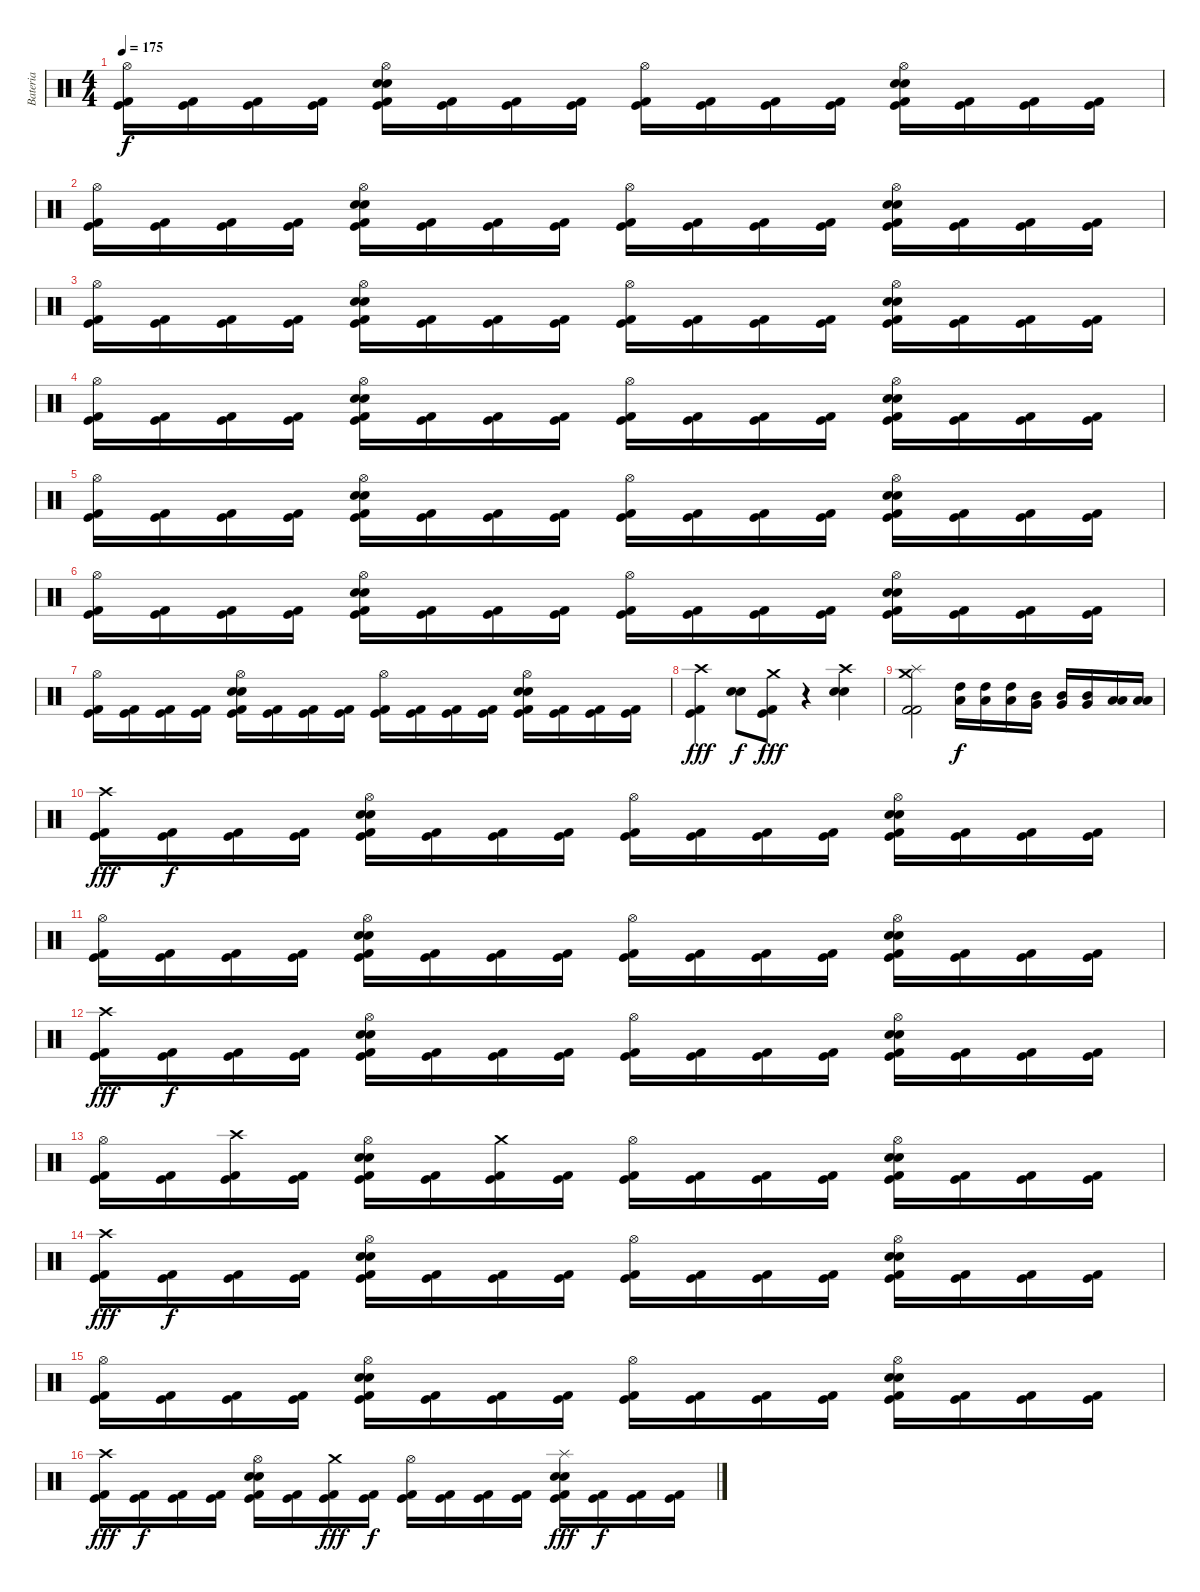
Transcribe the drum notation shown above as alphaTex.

\track ("Bateria" "Bateria") {instrument percussion}
\staff {score}
\articulation defaults
\ts (4 4)
\tempo 175
\clef neutral
\ks c
("Hi-Hat (open)" "Kick (hit) 2" "Kick (hit)").16{dy f} ("Kick (hit) 2" "Kick (hit)").16 ("Kick (hit) 2" "Kick (hit)").16 ("Kick (hit) 2" "Kick (hit)").16 ("Hi-Hat (open)" "Electric Snare (hit)" "Snare (hit) 2" "Kick (hit) 2" "Kick (hit)").16 ("Kick (hit) 2" "Kick (hit)").16 ("Kick (hit) 2" "Kick (hit)").16 ("Kick (hit) 2" "Kick (hit)").16 ("Hi-Hat (open)" "Kick (hit) 2" "Kick (hit)").16 ("Kick (hit) 2" "Kick (hit)").16 ("Kick (hit) 2" "Kick (hit)").16 ("Kick (hit) 2" "Kick (hit)").16 ("Hi-Hat (open)" "Electric Snare (hit)" "Snare (hit) 2" "Kick (hit) 2" "Kick (hit)").16 ("Kick (hit) 2" "Kick (hit)").16 ("Kick (hit) 2" "Kick (hit)").16 ("Kick (hit) 2" "Kick (hit)").16 |
("Hi-Hat (open)" "Kick (hit) 2" "Kick (hit)").16 ("Kick (hit) 2" "Kick (hit)").16 ("Kick (hit) 2" "Kick (hit)").16 ("Kick (hit) 2" "Kick (hit)").16 ("Hi-Hat (open)" "Electric Snare (hit)" "Snare (hit) 2" "Kick (hit) 2" "Kick (hit)").16 ("Kick (hit) 2" "Kick (hit)").16 ("Kick (hit) 2" "Kick (hit)").16 ("Kick (hit) 2" "Kick (hit)").16 ("Hi-Hat (open)" "Kick (hit) 2" "Kick (hit)").16 ("Kick (hit) 2" "Kick (hit)").16 ("Kick (hit) 2" "Kick (hit)").16 ("Kick (hit) 2" "Kick (hit)").16 ("Hi-Hat (open)" "Electric Snare (hit)" "Snare (hit) 2" "Kick (hit) 2" "Kick (hit)").16 ("Kick (hit) 2" "Kick (hit)").16 ("Kick (hit) 2" "Kick (hit)").16 ("Kick (hit) 2" "Kick (hit)").16 |
("Hi-Hat (open)" "Kick (hit) 2" "Kick (hit)").16 ("Kick (hit) 2" "Kick (hit)").16 ("Kick (hit) 2" "Kick (hit)").16 ("Kick (hit) 2" "Kick (hit)").16 ("Hi-Hat (open)" "Electric Snare (hit)" "Snare (hit) 2" "Kick (hit) 2" "Kick (hit)").16 ("Kick (hit) 2" "Kick (hit)").16 ("Kick (hit) 2" "Kick (hit)").16 ("Kick (hit) 2" "Kick (hit)").16 ("Hi-Hat (open)" "Kick (hit) 2" "Kick (hit)").16 ("Kick (hit) 2" "Kick (hit)").16 ("Kick (hit) 2" "Kick (hit)").16 ("Kick (hit) 2" "Kick (hit)").16 ("Hi-Hat (open)" "Electric Snare (hit)" "Snare (hit) 2" "Kick (hit) 2" "Kick (hit)").16 ("Kick (hit) 2" "Kick (hit)").16 ("Kick (hit) 2" "Kick (hit)").16 ("Kick (hit) 2" "Kick (hit)").16 |
("Hi-Hat (open)" "Kick (hit) 2" "Kick (hit)").16 ("Kick (hit) 2" "Kick (hit)").16 ("Kick (hit) 2" "Kick (hit)").16 ("Kick (hit) 2" "Kick (hit)").16 ("Hi-Hat (open)" "Electric Snare (hit)" "Snare (hit) 2" "Kick (hit) 2" "Kick (hit)").16 ("Kick (hit) 2" "Kick (hit)").16 ("Kick (hit) 2" "Kick (hit)").16 ("Kick (hit) 2" "Kick (hit)").16 ("Hi-Hat (open)" "Kick (hit) 2" "Kick (hit)").16 ("Kick (hit) 2" "Kick (hit)").16 ("Kick (hit) 2" "Kick (hit)").16 ("Kick (hit) 2" "Kick (hit)").16 ("Hi-Hat (open)" "Electric Snare (hit)" "Snare (hit) 2" "Kick (hit) 2" "Kick (hit)").16 ("Kick (hit) 2" "Kick (hit)").16 ("Kick (hit) 2" "Kick (hit)").16 ("Kick (hit) 2" "Kick (hit)").16 |
("Hi-Hat (open)" "Kick (hit) 2" "Kick (hit)").16 ("Kick (hit) 2" "Kick (hit)").16 ("Kick (hit) 2" "Kick (hit)").16 ("Kick (hit) 2" "Kick (hit)").16 ("Hi-Hat (open)" "Electric Snare (hit)" "Snare (hit) 2" "Kick (hit) 2" "Kick (hit)").16 ("Kick (hit) 2" "Kick (hit)").16 ("Kick (hit) 2" "Kick (hit)").16 ("Kick (hit) 2" "Kick (hit)").16 ("Hi-Hat (open)" "Kick (hit) 2" "Kick (hit)").16 ("Kick (hit) 2" "Kick (hit)").16 ("Kick (hit) 2" "Kick (hit)").16 ("Kick (hit) 2" "Kick (hit)").16 ("Hi-Hat (open)" "Electric Snare (hit)" "Snare (hit) 2" "Kick (hit) 2" "Kick (hit)").16 ("Kick (hit) 2" "Kick (hit)").16 ("Kick (hit) 2" "Kick (hit)").16 ("Kick (hit) 2" "Kick (hit)").16 |
("Hi-Hat (open)" "Kick (hit) 2" "Kick (hit)").16 ("Kick (hit) 2" "Kick (hit)").16 ("Kick (hit) 2" "Kick (hit)").16 ("Kick (hit) 2" "Kick (hit)").16 ("Hi-Hat (open)" "Electric Snare (hit)" "Snare (hit) 2" "Kick (hit) 2" "Kick (hit)").16 ("Kick (hit) 2" "Kick (hit)").16 ("Kick (hit) 2" "Kick (hit)").16 ("Kick (hit) 2" "Kick (hit)").16 ("Hi-Hat (open)" "Kick (hit) 2" "Kick (hit)").16 ("Kick (hit) 2" "Kick (hit)").16 ("Kick (hit) 2" "Kick (hit)").16 ("Kick (hit) 2" "Kick (hit)").16 ("Hi-Hat (open)" "Electric Snare (hit)" "Snare (hit) 2" "Kick (hit) 2" "Kick (hit)").16 ("Kick (hit) 2" "Kick (hit)").16 ("Kick (hit) 2" "Kick (hit)").16 ("Kick (hit) 2" "Kick (hit)").16 |
("Hi-Hat (open)" "Kick (hit) 2" "Kick (hit)").16 ("Kick (hit) 2" "Kick (hit)").16 ("Kick (hit) 2" "Kick (hit)").16 ("Kick (hit) 2" "Kick (hit)").16 ("Hi-Hat (open)" "Electric Snare (hit)" "Snare (hit) 2" "Kick (hit) 2" "Kick (hit)").16 ("Kick (hit) 2" "Kick (hit)").16 ("Kick (hit) 2" "Kick (hit)").16 ("Kick (hit) 2" "Kick (hit)").16 ("Hi-Hat (open)" "Kick (hit) 2" "Kick (hit)").16 ("Kick (hit) 2" "Kick (hit)").16 ("Kick (hit) 2" "Kick (hit)").16 ("Kick (hit) 2" "Kick (hit)").16 ("Hi-Hat (open)" "Electric Snare (hit)" "Snare (hit) 2" "Kick (hit) 2" "Kick (hit)").16 ("Kick (hit) 2" "Kick (hit)").16 ("Kick (hit) 2" "Kick (hit)").16 ("Kick (hit) 2" "Kick (hit)").16 |
("Crash high (hit)" "Kick (hit) 2" "Kick (hit)").4{dy fff} ("Electric Snare (hit)" "Snare (hit) 2").8{dy f} ("Crash medium (hit)" "Kick (hit) 2" "Kick (hit)").8{dy fff} r.4 ("Crash high (hit)" "Electric Snare (hit)" "Snare (hit) 2").4 |
("Crash medium (hit)" "Splash (hit)" "Kick (hit) 2" "Kick (hit) 2").2 ("High Tom (hit)" "Low Tom (hit)").16{dy f} ("High Tom (hit)" "Low Tom (hit)").16 ("High Tom (hit)" "Low Tom (hit)").16 ("Mid Tom (hit)" "Very Low Tom (hit)").16 ("Mid Tom (hit)" "Very Low Tom (hit)").16 ("Mid Tom (hit)" "Very Low Tom (hit)").16 ("Low Tom (hit)" "Low Floor Tom (hit)").16 ("Low Tom (hit)" "Low Floor Tom (hit)").16 |
("Crash high (hit)" "Kick (hit) 2" "Kick (hit)").16{dy fff} ("Kick (hit) 2" "Kick (hit)").16{dy f} ("Kick (hit) 2" "Kick (hit)").16 ("Kick (hit) 2" "Kick (hit)").16 ("Hi-Hat (open)" "Electric Snare (hit)" "Snare (hit) 2" "Kick (hit) 2" "Kick (hit)").16 ("Kick (hit) 2" "Kick (hit)").16 ("Kick (hit) 2" "Kick (hit)").16 ("Kick (hit) 2" "Kick (hit)").16 ("Hi-Hat (open)" "Kick (hit) 2" "Kick (hit)").16 ("Kick (hit) 2" "Kick (hit)").16 ("Kick (hit) 2" "Kick (hit)").16 ("Kick (hit) 2" "Kick (hit)").16 ("Hi-Hat (open)" "Electric Snare (hit)" "Snare (hit) 2" "Kick (hit) 2" "Kick (hit)").16 ("Kick (hit) 2" "Kick (hit)").16 ("Kick (hit) 2" "Kick (hit)").16 ("Kick (hit) 2" "Kick (hit)").16 |
("Hi-Hat (open)" "Kick (hit) 2" "Kick (hit)").16 ("Kick (hit) 2" "Kick (hit)").16 ("Kick (hit) 2" "Kick (hit)").16 ("Kick (hit) 2" "Kick (hit)").16 ("Hi-Hat (open)" "Electric Snare (hit)" "Snare (hit) 2" "Kick (hit) 2" "Kick (hit)").16 ("Kick (hit) 2" "Kick (hit)").16 ("Kick (hit) 2" "Kick (hit)").16 ("Kick (hit) 2" "Kick (hit)").16 ("Hi-Hat (open)" "Kick (hit) 2" "Kick (hit)").16 ("Kick (hit) 2" "Kick (hit)").16 ("Kick (hit) 2" "Kick (hit)").16 ("Kick (hit) 2" "Kick (hit)").16 ("Hi-Hat (open)" "Electric Snare (hit)" "Snare (hit) 2" "Kick (hit) 2" "Kick (hit)").16 ("Kick (hit) 2" "Kick (hit)").16 ("Kick (hit) 2" "Kick (hit)").16 ("Kick (hit) 2" "Kick (hit)").16 |
("Crash high (hit)" "Kick (hit) 2" "Kick (hit)").16{dy fff} ("Kick (hit) 2" "Kick (hit)").16{dy f} ("Kick (hit) 2" "Kick (hit)").16 ("Kick (hit) 2" "Kick (hit)").16 ("Hi-Hat (open)" "Electric Snare (hit)" "Snare (hit) 2" "Kick (hit) 2" "Kick (hit)").16 ("Kick (hit) 2" "Kick (hit)").16 ("Kick (hit) 2" "Kick (hit)").16 ("Kick (hit) 2" "Kick (hit)").16 ("Hi-Hat (open)" "Kick (hit) 2" "Kick (hit)").16 ("Kick (hit) 2" "Kick (hit)").16 ("Kick (hit) 2" "Kick (hit)").16 ("Kick (hit) 2" "Kick (hit)").16 ("Hi-Hat (open)" "Electric Snare (hit)" "Snare (hit) 2" "Kick (hit) 2" "Kick (hit)").16 ("Kick (hit) 2" "Kick (hit)").16 ("Kick (hit) 2" "Kick (hit)").16 ("Kick (hit) 2" "Kick (hit)").16 |
("Hi-Hat (open)" "Kick (hit) 2" "Kick (hit)").16 ("Kick (hit) 2" "Kick (hit)").16 ("Crash high (hit)" "Kick (hit) 2" "Kick (hit)").16 ("Kick (hit) 2" "Kick (hit)").16 ("Hi-Hat (open)" "Electric Snare (hit)" "Snare (hit) 2" "Kick (hit) 2" "Kick (hit)").16 ("Kick (hit) 2" "Kick (hit)").16 ("Crash medium (hit)" "Kick (hit) 2" "Kick (hit)").16 ("Kick (hit) 2" "Kick (hit)").16 ("Hi-Hat (open)" "Kick (hit) 2" "Kick (hit)").16 ("Kick (hit) 2" "Kick (hit)").16 ("Kick (hit) 2" "Kick (hit)").16 ("Kick (hit) 2" "Kick (hit)").16 ("Hi-Hat (open)" "Electric Snare (hit)" "Snare (hit) 2" "Kick (hit) 2" "Kick (hit)").16 ("Kick (hit) 2" "Kick (hit)").16 ("Kick (hit) 2" "Kick (hit)").16 ("Kick (hit) 2" "Kick (hit)").16 |
("Crash high (hit)" "Kick (hit) 2" "Kick (hit)").16{dy fff} ("Kick (hit) 2" "Kick (hit)").16{dy f} ("Kick (hit) 2" "Kick (hit)").16 ("Kick (hit) 2" "Kick (hit)").16 ("Hi-Hat (open)" "Electric Snare (hit)" "Snare (hit) 2" "Kick (hit) 2" "Kick (hit)").16 ("Kick (hit) 2" "Kick (hit)").16 ("Kick (hit) 2" "Kick (hit)").16 ("Kick (hit) 2" "Kick (hit)").16 ("Hi-Hat (open)" "Kick (hit) 2" "Kick (hit)").16 ("Kick (hit) 2" "Kick (hit)").16 ("Kick (hit) 2" "Kick (hit)").16 ("Kick (hit) 2" "Kick (hit)").16 ("Hi-Hat (open)" "Electric Snare (hit)" "Snare (hit) 2" "Kick (hit) 2" "Kick (hit)").16 ("Kick (hit) 2" "Kick (hit)").16 ("Kick (hit) 2" "Kick (hit)").16 ("Kick (hit) 2" "Kick (hit)").16 |
("Hi-Hat (open)" "Kick (hit) 2" "Kick (hit)").16 ("Kick (hit) 2" "Kick (hit)").16 ("Kick (hit) 2" "Kick (hit)").16 ("Kick (hit) 2" "Kick (hit)").16 ("Hi-Hat (open)" "Electric Snare (hit)" "Snare (hit) 2" "Kick (hit) 2" "Kick (hit)").16 ("Kick (hit) 2" "Kick (hit)").16 ("Kick (hit) 2" "Kick (hit)").16 ("Kick (hit) 2" "Kick (hit)").16 ("Hi-Hat (open)" "Kick (hit) 2" "Kick (hit)").16 ("Kick (hit) 2" "Kick (hit)").16 ("Kick (hit) 2" "Kick (hit)").16 ("Kick (hit) 2" "Kick (hit)").16 ("Hi-Hat (open)" "Electric Snare (hit)" "Snare (hit) 2" "Kick (hit) 2" "Kick (hit)").16 ("Kick (hit) 2" "Kick (hit)").16 ("Kick (hit) 2" "Kick (hit)").16 ("Kick (hit) 2" "Kick (hit)").16 |
("Crash high (hit)" "Kick (hit) 2" "Kick (hit)").16{dy fff} ("Kick (hit) 2" "Kick (hit)").16{dy f} ("Kick (hit) 2" "Kick (hit)").16 ("Kick (hit) 2" "Kick (hit)").16 ("Hi-Hat (open)" "Electric Snare (hit)" "Snare (hit) 2" "Kick (hit) 2" "Kick (hit)").16 ("Kick (hit) 2" "Kick (hit)").16 ("Crash medium (hit)" "Kick (hit) 2" "Kick (hit)").16{dy fff} ("Kick (hit) 2" "Kick (hit)").16{dy f} ("Hi-Hat (open)" "Kick (hit) 2" "Kick (hit)").16 ("Kick (hit) 2" "Kick (hit)").16 ("Kick (hit) 2" "Kick (hit)").16 ("Kick (hit) 2" "Kick (hit)").16 ("Splash (hit)" "Electric Snare (hit)" "Snare (hit) 2" "Kick (hit) 2" "Kick (hit)").16{dy fff} ("Kick (hit) 2" "Kick (hit)").16{dy f} ("Kick (hit) 2" "Kick (hit)").16 ("Kick (hit) 2" "Kick (hit)").16
